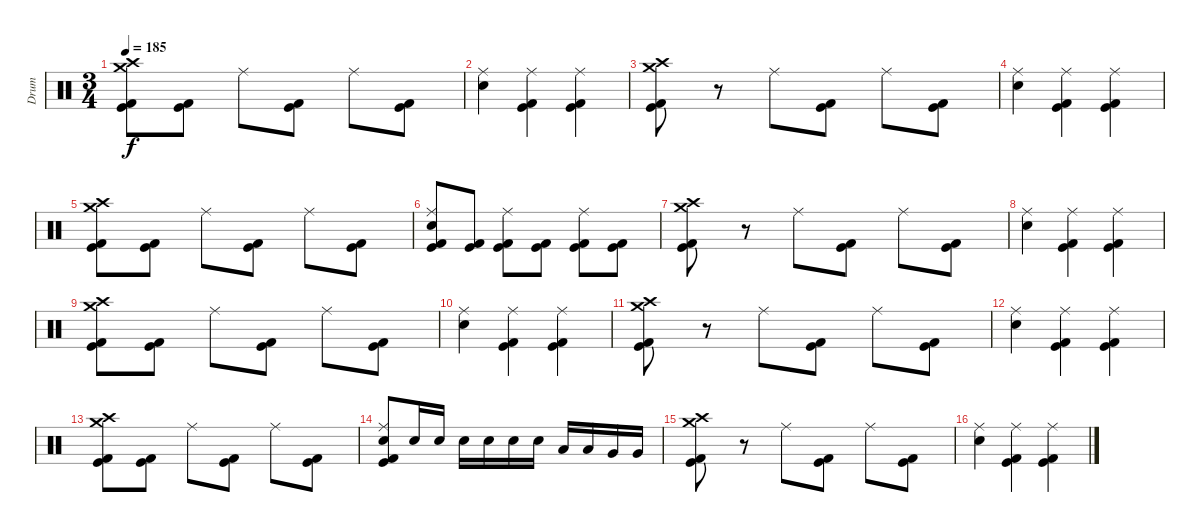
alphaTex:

\track ("Drum" "Drum") {instrument percussion}
\staff {score}
\articulation defaults
\ts (3 4)
\tempo 185
\clef neutral
\ks c
("Crash medium (hit)" "Crash high (hit)" "Kick (hit)" "Kick (hit) 2").8{dy f} ("Kick (hit)" "Kick (hit) 2").8 "Ride (middle)".8 ("Kick (hit)" "Kick (hit) 2").8 "Ride (middle)".8 ("Kick (hit)" "Kick (hit) 2").8 |
("Ride (middle)" "Electric Snare (hit)").4 ("Ride (middle)" "Kick (hit)" "Kick (hit) 2").4 ("Ride (middle)" "Kick (hit)" "Kick (hit) 2").4 |
("Crash medium (hit)" "Crash high (hit)" "Kick (hit)" "Kick (hit) 2").8 r.8 "Ride (middle)".8 ("Kick (hit)" "Kick (hit) 2").8 "Ride (middle)".8 ("Kick (hit)" "Kick (hit) 2").8 |
("Ride (middle)" "Electric Snare (hit)").4 ("Ride (middle)" "Kick (hit)" "Kick (hit) 2").4 ("Ride (middle)" "Kick (hit)" "Kick (hit) 2").4 |
("Crash medium (hit)" "Crash high (hit)" "Kick (hit)" "Kick (hit) 2").8 ("Kick (hit)" "Kick (hit) 2").8 "Ride (middle)".8 ("Kick (hit)" "Kick (hit) 2").8 "Ride (middle)".8 ("Kick (hit)" "Kick (hit) 2").8 |
("Ride (middle)" "Electric Snare (hit)" "Kick (hit)" "Kick (hit) 2").8 ("Kick (hit)" "Kick (hit) 2").8 ("Ride (middle)" "Kick (hit)" "Kick (hit) 2").8 ("Kick (hit)" "Kick (hit) 2").8 ("Ride (middle)" "Kick (hit)" "Kick (hit) 2").8 ("Kick (hit)" "Kick (hit) 2").8 |
("Crash medium (hit)" "Crash high (hit)" "Kick (hit)" "Kick (hit) 2").8 r.8 "Ride (middle)".8 ("Kick (hit)" "Kick (hit) 2").8 "Ride (middle)".8 ("Kick (hit)" "Kick (hit) 2").8 |
("Ride (middle)" "Electric Snare (hit)").4 ("Ride (middle)" "Kick (hit)" "Kick (hit) 2").4 ("Ride (middle)" "Kick (hit)" "Kick (hit) 2").4 |
("Crash medium (hit)" "Crash high (hit)" "Kick (hit)" "Kick (hit) 2").8 ("Kick (hit)" "Kick (hit) 2").8 "Ride (middle)".8 ("Kick (hit)" "Kick (hit) 2").8 "Ride (middle)".8 ("Kick (hit)" "Kick (hit) 2").8 |
("Ride (middle)" "Electric Snare (hit)").4 ("Ride (middle)" "Kick (hit)" "Kick (hit) 2").4 ("Ride (middle)" "Kick (hit)" "Kick (hit) 2").4 |
("Crash medium (hit)" "Crash high (hit)" "Kick (hit)" "Kick (hit) 2").8 r.8 "Ride (middle)".8 ("Kick (hit)" "Kick (hit) 2").8 "Ride (middle)".8 ("Kick (hit)" "Kick (hit) 2").8 |
("Ride (middle)" "Electric Snare (hit)").4 ("Ride (middle)" "Kick (hit)" "Kick (hit) 2").4 ("Ride (middle)" "Kick (hit)" "Kick (hit) 2").4 |
("Crash medium (hit)" "Crash high (hit)" "Kick (hit)" "Kick (hit) 2").8 ("Kick (hit)" "Kick (hit) 2").8 "Ride (middle)".8 ("Kick (hit)" "Kick (hit) 2").8 "Ride (middle)".8 ("Kick (hit)" "Kick (hit) 2").8 |
("Ride (middle)" "Electric Snare (hit)" "Kick (hit)" "Kick (hit) 2").8 "Electric Snare (hit)".16 "Electric Snare (hit)".16 "Electric Snare (hit)".16 "Electric Snare (hit)".16 "Electric Snare (hit)".16 "Electric Snare (hit)".16 "Low Tom (hit)".16 "Low Tom (hit)".16 "Very Low Tom (hit)".16 "Very Low Tom (hit)".16 |
("Crash medium (hit)" "Crash high (hit)" "Kick (hit)" "Kick (hit) 2").8 r.8 "Ride (middle)".8 ("Kick (hit)" "Kick (hit) 2").8 "Ride (middle)".8 ("Kick (hit)" "Kick (hit) 2").8 |
("Ride (middle)" "Electric Snare (hit)").4 ("Ride (middle)" "Kick (hit)" "Kick (hit) 2").4 ("Ride (middle)" "Kick (hit)" "Kick (hit) 2").4
